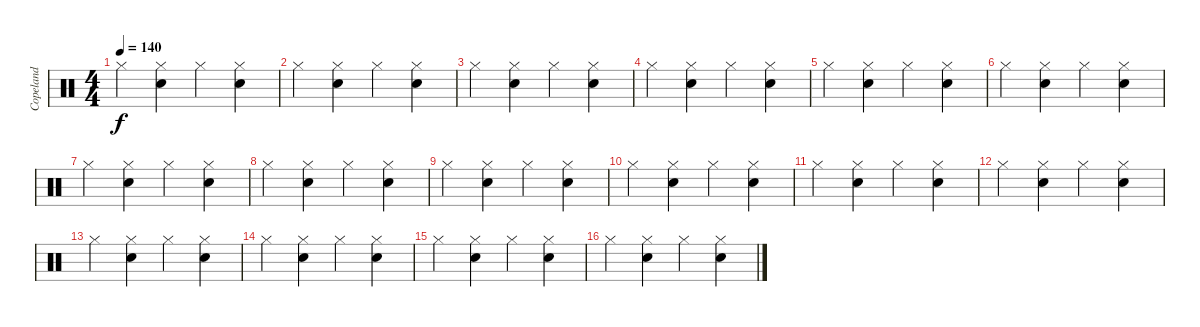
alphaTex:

\track ("Copeland" "Copeland") {instrument percussion}
\staff {score}
\articulation defaults
\ts (4 4)
\tempo 140
\clef neutral
\ks c "Hi-Hat (closed)".4{dy f}
("Hi-Hat (closed)" "Electric Snare (hit)").4 "Hi-Hat (closed)".4 ("Hi-Hat (closed)" "Electric Snare (hit)").4 |
"Hi-Hat (closed)".4 ("Hi-Hat (closed)" "Electric Snare (hit)").4 "Hi-Hat (closed)".4 ("Hi-Hat (closed)" "Electric Snare (hit)").4 |
"Hi-Hat (closed)".4 ("Hi-Hat (closed)" "Electric Snare (hit)").4 "Hi-Hat (closed)".4 ("Hi-Hat (closed)" "Electric Snare (hit)").4 |
"Hi-Hat (closed)".4 ("Hi-Hat (closed)" "Electric Snare (hit)").4 "Hi-Hat (closed)".4 ("Hi-Hat (closed)" "Electric Snare (hit)").4 |
"Hi-Hat (closed)".4 ("Hi-Hat (closed)" "Electric Snare (hit)").4 "Hi-Hat (closed)".4 ("Hi-Hat (closed)" "Electric Snare (hit)").4 |
"Hi-Hat (closed)".4 ("Hi-Hat (closed)" "Electric Snare (hit)").4 "Hi-Hat (closed)".4 ("Hi-Hat (closed)" "Electric Snare (hit)").4 |
"Hi-Hat (closed)".4 ("Hi-Hat (closed)" "Electric Snare (hit)").4 "Hi-Hat (closed)".4 ("Hi-Hat (closed)" "Electric Snare (hit)").4 |
"Hi-Hat (closed)".4 ("Hi-Hat (closed)" "Electric Snare (hit)").4 "Hi-Hat (closed)".4 ("Hi-Hat (closed)" "Electric Snare (hit)").4 |
"Hi-Hat (closed)".4 ("Hi-Hat (closed)" "Electric Snare (hit)").4 "Hi-Hat (closed)".4 ("Hi-Hat (closed)" "Electric Snare (hit)").4 |
"Hi-Hat (closed)".4 ("Hi-Hat (closed)" "Electric Snare (hit)").4 "Hi-Hat (closed)".4 ("Hi-Hat (closed)" "Electric Snare (hit)").4 |
"Hi-Hat (closed)".4 ("Hi-Hat (closed)" "Electric Snare (hit)").4 "Hi-Hat (closed)".4 ("Hi-Hat (closed)" "Electric Snare (hit)").4 |
"Hi-Hat (closed)".4 ("Hi-Hat (closed)" "Electric Snare (hit)").4 "Hi-Hat (closed)".4 ("Hi-Hat (closed)" "Electric Snare (hit)").4 |
"Hi-Hat (closed)".4 ("Hi-Hat (closed)" "Electric Snare (hit)").4 "Hi-Hat (closed)".4 ("Hi-Hat (closed)" "Electric Snare (hit)").4 |
"Hi-Hat (closed)".4 ("Hi-Hat (closed)" "Electric Snare (hit)").4 "Hi-Hat (closed)".4 ("Hi-Hat (closed)" "Electric Snare (hit)").4 |
"Hi-Hat (closed)".4 ("Hi-Hat (closed)" "Electric Snare (hit)").4 "Hi-Hat (closed)".4 ("Hi-Hat (closed)" "Electric Snare (hit)").4 |
"Hi-Hat (closed)".4 ("Hi-Hat (closed)" "Electric Snare (hit)").4 "Hi-Hat (closed)".4 ("Hi-Hat (closed)" "Electric Snare (hit)").4
